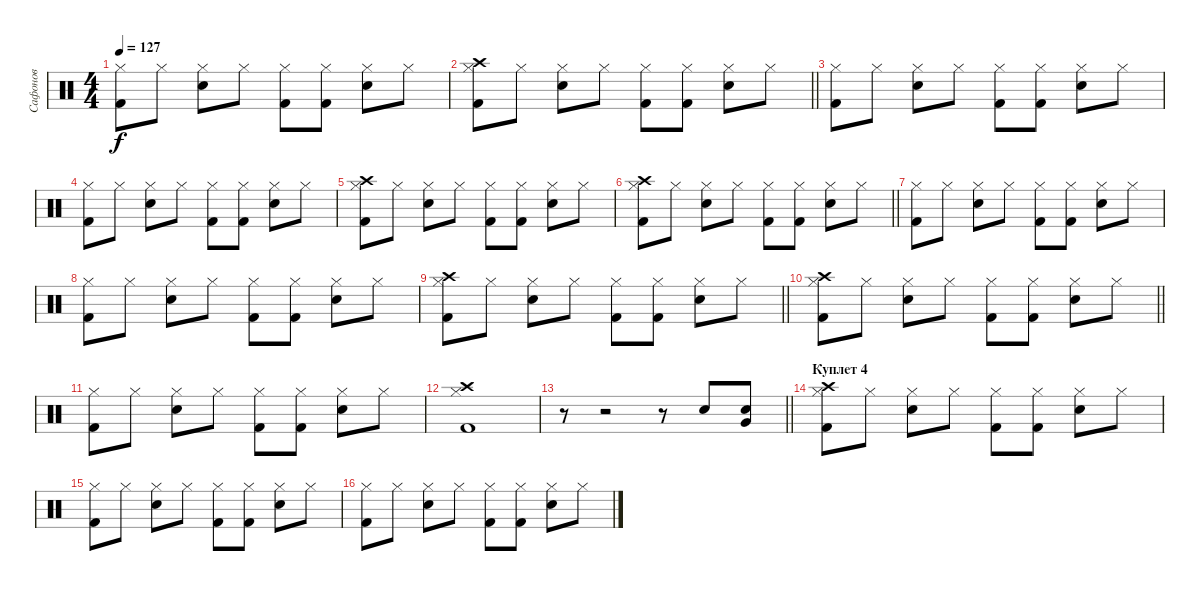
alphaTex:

\track ("Сафонов" "Сафонов") {instrument percussion}
\staff {score}
\articulation defaults
\ts (4 4)
\tempo 127
\clef neutral
\ks c
("Hi-Hat (closed)" "Kick (hit) 2").8{dy f} "Hi-Hat (closed)".8 ("Hi-Hat (closed)" "Electric Snare (hit)").8 "Hi-Hat (closed)".8 ("Hi-Hat (closed)" "Kick (hit) 2").8 ("Hi-Hat (closed)" "Kick (hit) 2").8 ("Hi-Hat (closed)" "Electric Snare (hit)").8 "Hi-Hat (closed)".8 |
\barLineRight lightlight
("Crash high (hit)" "Hi-Hat (closed)" "Kick (hit) 2").8 "Hi-Hat (closed)".8 ("Hi-Hat (closed)" "Electric Snare (hit)").8 "Hi-Hat (closed)".8 ("Hi-Hat (closed)" "Kick (hit) 2").8 ("Hi-Hat (closed)" "Kick (hit) 2").8 ("Hi-Hat (closed)" "Electric Snare (hit)").8 "Hi-Hat (closed)".8 |
("Hi-Hat (closed)" "Kick (hit) 2").8 "Hi-Hat (closed)".8 ("Hi-Hat (closed)" "Electric Snare (hit)").8 "Hi-Hat (closed)".8 ("Hi-Hat (closed)" "Kick (hit) 2").8 ("Hi-Hat (closed)" "Kick (hit) 2").8 ("Hi-Hat (closed)" "Electric Snare (hit)").8 "Hi-Hat (closed)".8 |
("Hi-Hat (closed)" "Kick (hit) 2").8 "Hi-Hat (closed)".8 ("Hi-Hat (closed)" "Electric Snare (hit)").8 "Hi-Hat (closed)".8 ("Hi-Hat (closed)" "Kick (hit) 2").8 ("Hi-Hat (closed)" "Kick (hit) 2").8 ("Hi-Hat (closed)" "Electric Snare (hit)").8 "Hi-Hat (closed)".8 |
("Crash high (hit)" "Hi-Hat (closed)" "Kick (hit) 2").8 "Hi-Hat (closed)".8 ("Hi-Hat (closed)" "Electric Snare (hit)").8 "Hi-Hat (closed)".8 ("Hi-Hat (closed)" "Kick (hit) 2").8 ("Hi-Hat (closed)" "Kick (hit) 2").8 ("Hi-Hat (closed)" "Electric Snare (hit)").8 "Hi-Hat (closed)".8 |
\barLineRight lightlight
("Crash high (hit)" "Hi-Hat (closed)" "Kick (hit) 2").8 "Hi-Hat (closed)".8 ("Hi-Hat (closed)" "Electric Snare (hit)").8 "Hi-Hat (closed)".8 ("Hi-Hat (closed)" "Kick (hit) 2").8 ("Hi-Hat (closed)" "Kick (hit) 2").8 ("Hi-Hat (closed)" "Electric Snare (hit)").8 "Hi-Hat (closed)".8 |
("Hi-Hat (closed)" "Kick (hit) 2").8 "Hi-Hat (closed)".8 ("Hi-Hat (closed)" "Electric Snare (hit)").8 "Hi-Hat (closed)".8 ("Hi-Hat (closed)" "Kick (hit) 2").8 ("Hi-Hat (closed)" "Kick (hit) 2").8 ("Hi-Hat (closed)" "Electric Snare (hit)").8 "Hi-Hat (closed)".8 |
("Hi-Hat (closed)" "Kick (hit) 2").8 "Hi-Hat (closed)".8 ("Hi-Hat (closed)" "Electric Snare (hit)").8 "Hi-Hat (closed)".8 ("Hi-Hat (closed)" "Kick (hit) 2").8 ("Hi-Hat (closed)" "Kick (hit) 2").8 ("Hi-Hat (closed)" "Electric Snare (hit)").8 "Hi-Hat (closed)".8 |
\barLineRight lightlight
("Crash high (hit)" "Hi-Hat (closed)" "Kick (hit) 2").8 "Hi-Hat (closed)".8 ("Hi-Hat (closed)" "Electric Snare (hit)").8 "Hi-Hat (closed)".8 ("Hi-Hat (closed)" "Kick (hit) 2").8 ("Hi-Hat (closed)" "Kick (hit) 2").8 ("Hi-Hat (closed)" "Electric Snare (hit)").8 "Hi-Hat (closed)".8 |
\section ("" "")
\barLineRight lightlight
("Crash high (hit)" "Hi-Hat (closed)" "Kick (hit) 2").8 "Hi-Hat (closed)".8 ("Hi-Hat (closed)" "Electric Snare (hit)").8 "Hi-Hat (closed)".8 ("Hi-Hat (closed)" "Kick (hit) 2").8 ("Hi-Hat (closed)" "Kick (hit) 2").8 ("Hi-Hat (closed)" "Electric Snare (hit)").8 "Hi-Hat (closed)".8 |
("Hi-Hat (closed)" "Kick (hit) 2").8 "Hi-Hat (closed)".8 ("Hi-Hat (closed)" "Electric Snare (hit)").8 "Hi-Hat (closed)".8 ("Hi-Hat (closed)" "Kick (hit) 2").8 ("Hi-Hat (closed)" "Kick (hit) 2").8 ("Hi-Hat (closed)" "Electric Snare (hit)").8 "Hi-Hat (closed)".8 |
("Crash high (hit)" "Hi-Hat (closed)" "Kick (hit) 2").1 |
\barLineRight lightlight
r.8 r.2 r.8 "Electric Snare (hit)".8 ("Very Low Tom (hit)" "Electric Snare (hit)").8 |
\section ("" "Куплет 4")
("Crash high (hit)" "Hi-Hat (closed)" "Kick (hit) 2").8 "Hi-Hat (closed)".8 ("Hi-Hat (closed)" "Electric Snare (hit)").8 "Hi-Hat (closed)".8 ("Hi-Hat (closed)" "Kick (hit) 2").8 ("Hi-Hat (closed)" "Kick (hit) 2").8 ("Hi-Hat (closed)" "Electric Snare (hit)").8 "Hi-Hat (closed)".8 |
("Hi-Hat (closed)" "Kick (hit) 2").8 "Hi-Hat (closed)".8 ("Hi-Hat (closed)" "Electric Snare (hit)").8 "Hi-Hat (closed)".8 ("Hi-Hat (closed)" "Kick (hit) 2").8 ("Hi-Hat (closed)" "Kick (hit) 2").8 ("Hi-Hat (closed)" "Electric Snare (hit)").8 "Hi-Hat (closed)".8 |
("Hi-Hat (closed)" "Kick (hit) 2").8 "Hi-Hat (closed)".8 ("Hi-Hat (closed)" "Electric Snare (hit)").8 "Hi-Hat (closed)".8 ("Hi-Hat (closed)" "Kick (hit) 2").8 ("Hi-Hat (closed)" "Kick (hit) 2").8 ("Hi-Hat (closed)" "Electric Snare (hit)").8 "Hi-Hat (closed)".8
